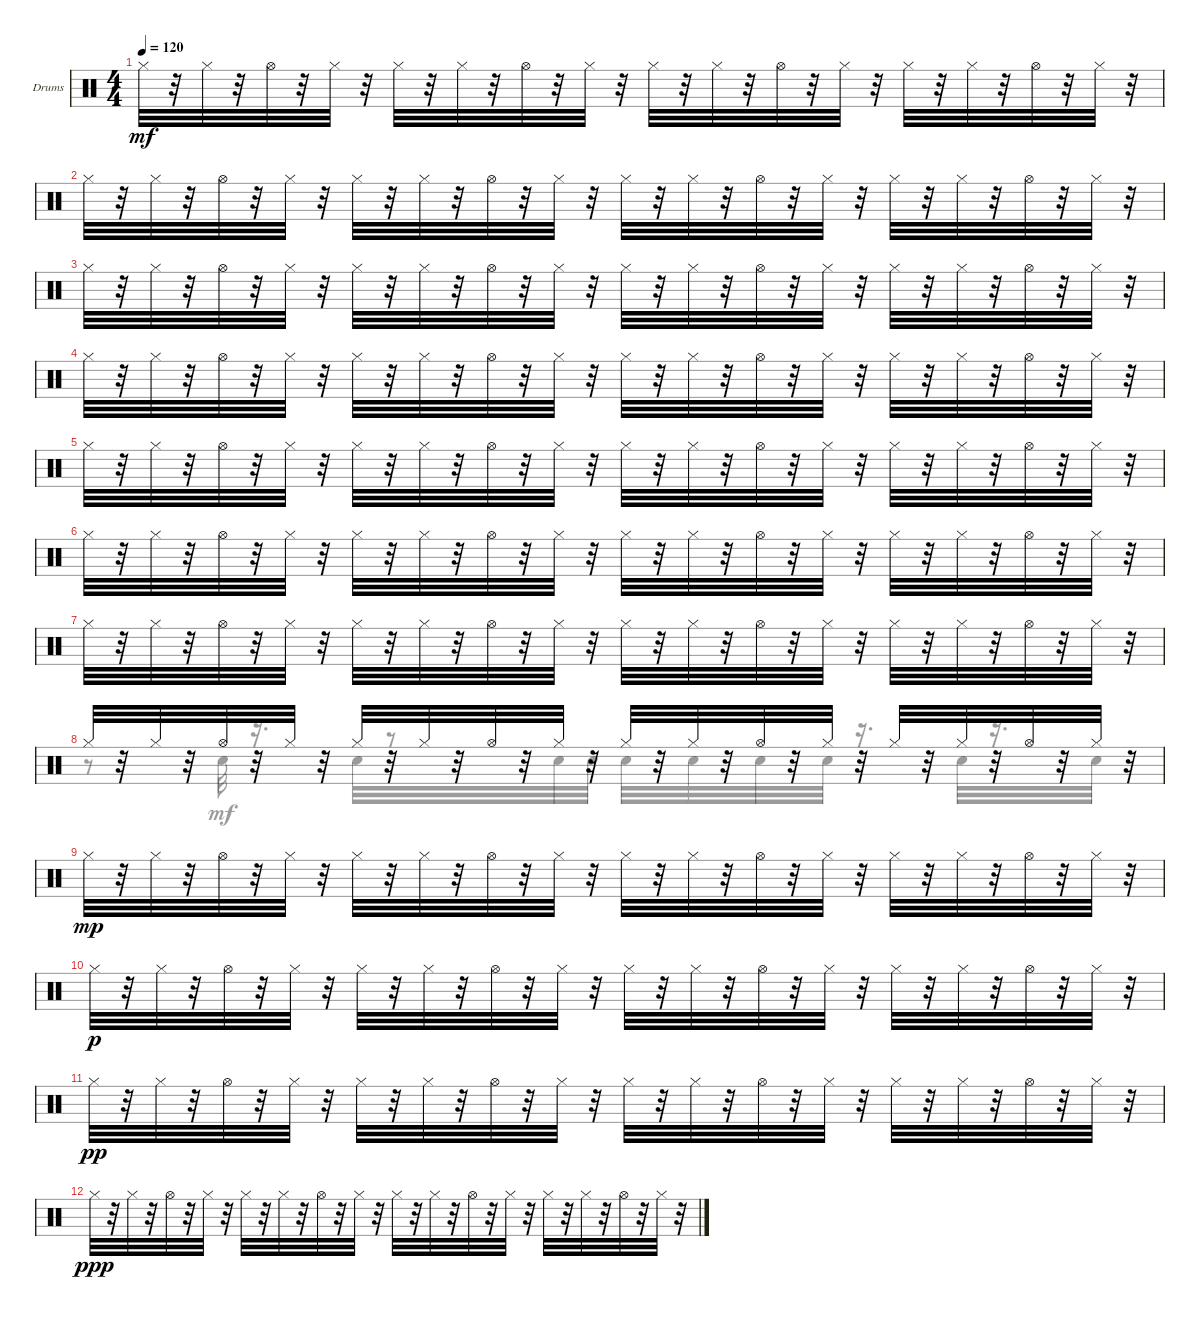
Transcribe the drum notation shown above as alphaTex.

\defaultSystemsLayout 4
\bracketExtendMode groupsimilarinstruments
\firstSystemTrackNameOrientation horizontal
\otherSystemsTrackNameOrientation horizontal
\track ("Drumkit" "Drums") {instrument percussion}
\staff {score}
\articulation defaults
\voice
\ts (4 4)
\tempo 120
\clef neutral
\ks c "Hi-Hat (closed)".32{dy mf}
r.32 "Hi-Hat (closed)".32 r.32 "Hi-Hat (open)".32 r.32 "Hi-Hat (closed)".32 r.32 "Hi-Hat (closed)".32 r.32 "Hi-Hat (closed)".32 r.32 "Hi-Hat (open)".32 r.32 "Hi-Hat (closed)".32 r.32 "Hi-Hat (closed)".32 r.32 "Hi-Hat (closed)".32 r.32 "Hi-Hat (open)".32 r.32 "Hi-Hat (closed)".32 r.32 "Hi-Hat (closed)".32 r.32 "Hi-Hat (closed)".32 r.32 "Hi-Hat (open)".32 r.32 "Hi-Hat (closed)".32 r.32 |
"Hi-Hat (closed)".32 r.32 "Hi-Hat (closed)".32 r.32 "Hi-Hat (open)".32 r.32 "Hi-Hat (closed)".32 r.32 "Hi-Hat (closed)".32 r.32 "Hi-Hat (closed)".32 r.32 "Hi-Hat (open)".32 r.32 "Hi-Hat (closed)".32 r.32 "Hi-Hat (closed)".32 r.32 "Hi-Hat (closed)".32 r.32 "Hi-Hat (open)".32 r.32 "Hi-Hat (closed)".32 r.32 "Hi-Hat (closed)".32 r.32 "Hi-Hat (closed)".32 r.32 "Hi-Hat (open)".32 r.32 "Hi-Hat (closed)".32 r.32 |
"Hi-Hat (closed)".32 r.32 "Hi-Hat (closed)".32 r.32 "Hi-Hat (open)".32 r.32 "Hi-Hat (closed)".32 r.32 "Hi-Hat (closed)".32 r.32 "Hi-Hat (closed)".32 r.32 "Hi-Hat (open)".32 r.32 "Hi-Hat (closed)".32 r.32 "Hi-Hat (closed)".32 r.32 "Hi-Hat (closed)".32 r.32 "Hi-Hat (open)".32 r.32 "Hi-Hat (closed)".32 r.32 "Hi-Hat (closed)".32 r.32 "Hi-Hat (closed)".32 r.32 "Hi-Hat (open)".32 r.32 "Hi-Hat (closed)".32 r.32 |
"Hi-Hat (closed)".32 r.32 "Hi-Hat (closed)".32 r.32 "Hi-Hat (open)".32 r.32 "Hi-Hat (closed)".32 r.32 "Hi-Hat (closed)".32 r.32 "Hi-Hat (closed)".32 r.32 "Hi-Hat (open)".32 r.32 "Hi-Hat (closed)".32 r.32 "Hi-Hat (closed)".32 r.32 "Hi-Hat (closed)".32 r.32 "Hi-Hat (open)".32 r.32 "Hi-Hat (closed)".32 r.32 "Hi-Hat (closed)".32 r.32 "Hi-Hat (closed)".32 r.32 "Hi-Hat (open)".32 r.32 "Hi-Hat (closed)".32 r.32 |
"Hi-Hat (closed)".32 r.32 "Hi-Hat (closed)".32 r.32 "Hi-Hat (open)".32 r.32 "Hi-Hat (closed)".32 r.32 "Hi-Hat (closed)".32 r.32 "Hi-Hat (closed)".32 r.32 "Hi-Hat (open)".32 r.32 "Hi-Hat (closed)".32 r.32 "Hi-Hat (closed)".32 r.32 "Hi-Hat (closed)".32 r.32 "Hi-Hat (open)".32 r.32 "Hi-Hat (closed)".32 r.32 "Hi-Hat (closed)".32 r.32 "Hi-Hat (closed)".32 r.32 "Hi-Hat (open)".32 r.32 "Hi-Hat (closed)".32 r.32 |
"Hi-Hat (closed)".32 r.32 "Hi-Hat (closed)".32 r.32 "Hi-Hat (open)".32 r.32 "Hi-Hat (closed)".32 r.32 "Hi-Hat (closed)".32 r.32 "Hi-Hat (closed)".32 r.32 "Hi-Hat (open)".32 r.32 "Hi-Hat (closed)".32 r.32 "Hi-Hat (closed)".32 r.32 "Hi-Hat (closed)".32 r.32 "Hi-Hat (open)".32 r.32 "Hi-Hat (closed)".32 r.32 "Hi-Hat (closed)".32 r.32 "Hi-Hat (closed)".32 r.32 "Hi-Hat (open)".32 r.32 "Hi-Hat (closed)".32 r.32 |
"Hi-Hat (closed)".32 r.32 "Hi-Hat (closed)".32 r.32 "Hi-Hat (open)".32 r.32 "Hi-Hat (closed)".32 r.32 "Hi-Hat (closed)".32 r.32 "Hi-Hat (closed)".32 r.32 "Hi-Hat (open)".32 r.32 "Hi-Hat (closed)".32 r.32 "Hi-Hat (closed)".32 r.32 "Hi-Hat (closed)".32 r.32 "Hi-Hat (open)".32 r.32 "Hi-Hat (closed)".32 r.32 "Hi-Hat (closed)".32 r.32 "Hi-Hat (closed)".32 r.32 "Hi-Hat (open)".32 r.32 "Hi-Hat (closed)".32 r.32 |
"Hi-Hat (closed)".32 r.32 "Hi-Hat (closed)".32 r.32 "Hi-Hat (open)".32 r.32 "Hi-Hat (closed)".32 r.32 "Hi-Hat (closed)".32 r.32 "Hi-Hat (closed)".32 r.32 "Hi-Hat (open)".32 r.32 "Hi-Hat (closed)".32 r.32 "Hi-Hat (closed)".32 r.32 "Hi-Hat (closed)".32 r.32 "Hi-Hat (open)".32 r.32 "Hi-Hat (closed)".32 r.32 "Hi-Hat (closed)".32 r.32 "Hi-Hat (closed)".32 r.32 "Hi-Hat (open)".32 r.32 "Hi-Hat (closed)".32 r.32 |
"Hi-Hat (closed)".32{dy mp} r.32 "Hi-Hat (closed)".32 r.32 "Hi-Hat (open)".32 r.32 "Hi-Hat (closed)".32 r.32 "Hi-Hat (closed)".32 r.32 "Hi-Hat (closed)".32 r.32 "Hi-Hat (open)".32 r.32 "Hi-Hat (closed)".32 r.32 "Hi-Hat (closed)".32 r.32 "Hi-Hat (closed)".32 r.32 "Hi-Hat (open)".32 r.32 "Hi-Hat (closed)".32 r.32 "Hi-Hat (closed)".32 r.32 "Hi-Hat (closed)".32 r.32 "Hi-Hat (open)".32 r.32 "Hi-Hat (closed)".32 r.32 |
"Hi-Hat (closed)".32{dy p} r.32 "Hi-Hat (closed)".32 r.32 "Hi-Hat (open)".32 r.32 "Hi-Hat (closed)".32 r.32 "Hi-Hat (closed)".32 r.32 "Hi-Hat (closed)".32 r.32 "Hi-Hat (open)".32 r.32 "Hi-Hat (closed)".32 r.32 "Hi-Hat (closed)".32 r.32 "Hi-Hat (closed)".32 r.32 "Hi-Hat (open)".32 r.32 "Hi-Hat (closed)".32 r.32 "Hi-Hat (closed)".32 r.32 "Hi-Hat (closed)".32 r.32 "Hi-Hat (open)".32 r.32 "Hi-Hat (closed)".32 r.32 |
"Hi-Hat (closed)".32{dy pp} r.32 "Hi-Hat (closed)".32 r.32 "Hi-Hat (open)".32 r.32 "Hi-Hat (closed)".32 r.32 "Hi-Hat (closed)".32 r.32 "Hi-Hat (closed)".32 r.32 "Hi-Hat (open)".32 r.32 "Hi-Hat (closed)".32 r.32 "Hi-Hat (closed)".32 r.32 "Hi-Hat (closed)".32 r.32 "Hi-Hat (open)".32 r.32 "Hi-Hat (closed)".32 r.32 "Hi-Hat (closed)".32 r.32 "Hi-Hat (closed)".32 r.32 "Hi-Hat (open)".32 r.32 "Hi-Hat (closed)".32 r.32 |
"Hi-Hat (closed)".32{dy ppp} r.32 "Hi-Hat (closed)".32 r.32 "Hi-Hat (open)".32 r.32 "Hi-Hat (closed)".32 r.32 "Hi-Hat (closed)".32 r.32 "Hi-Hat (closed)".32 r.32 "Hi-Hat (open)".32 r.32 "Hi-Hat (closed)".32 r.32 "Hi-Hat (closed)".32 r.32 "Hi-Hat (closed)".32 r.32 "Hi-Hat (open)".32 r.32 "Hi-Hat (closed)".32 r.32 "Hi-Hat (closed)".32 r.32 "Hi-Hat (closed)".32 r.32 "Hi-Hat (open)".32 r.32 "Hi-Hat (closed)".32 r.32
\voice
\clef neutral
\ottava regular
\simile none
\ks c
|
|
|
|
|
|
|
r.8 "Snare (hit) 2".32{dy mf} r.16{d} "Snare (hit) 2".32 r.8 r.32 "Snare (hit) 2".32 "Snare (hit) 2".32 "Snare (hit) 2".32 r.32 "Snare (hit) 2".32 r.32 "Snare (hit) 2".32 r.32 "Snare (hit) 2".32 r.16{d} "Snare (hit) 2".32 r.16{d} "Snare (hit) 2".32 r.32 |
|
|
|
